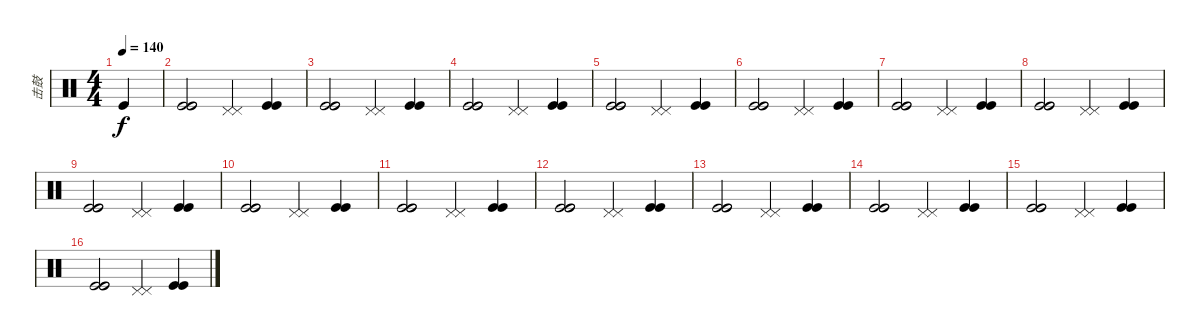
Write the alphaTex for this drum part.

\track ("击鼓" "击鼓") {instrument percussion}
\staff {score}
\articulation defaults
\ts (4 4)
\tempo 140
\clef neutral
\ks c "Kick (hit)".4{dy f}
|
("Kick (hit)" "Kick (hit)" "Kick (hit)").2 ("Pedal Hi-Hat (hit)" "Pedal Hi-Hat (hit)").4 ("Kick (hit)" "Kick (hit)").4 |
("Kick (hit)" "Kick (hit)" "Kick (hit)").2 ("Pedal Hi-Hat (hit)" "Pedal Hi-Hat (hit)").4 ("Kick (hit)" "Kick (hit)").4 |
("Kick (hit)" "Kick (hit)" "Kick (hit)").2 ("Pedal Hi-Hat (hit)" "Pedal Hi-Hat (hit)").4 ("Kick (hit)" "Kick (hit)").4 |
("Kick (hit)" "Kick (hit)" "Kick (hit)").2 ("Pedal Hi-Hat (hit)" "Pedal Hi-Hat (hit)").4 ("Kick (hit)" "Kick (hit)").4 |
("Kick (hit)" "Kick (hit)" "Kick (hit)").2 ("Pedal Hi-Hat (hit)" "Pedal Hi-Hat (hit)").4 ("Kick (hit)" "Kick (hit)").4 |
("Kick (hit)" "Kick (hit)" "Kick (hit)").2 ("Pedal Hi-Hat (hit)" "Pedal Hi-Hat (hit)").4 ("Kick (hit)" "Kick (hit)").4 |
("Kick (hit)" "Kick (hit)" "Kick (hit)").2 ("Pedal Hi-Hat (hit)" "Pedal Hi-Hat (hit)").4 ("Kick (hit)" "Kick (hit)").4 |
("Kick (hit)" "Kick (hit)" "Kick (hit)").2 ("Pedal Hi-Hat (hit)" "Pedal Hi-Hat (hit)").4 ("Kick (hit)" "Kick (hit)").4 |
("Kick (hit)" "Kick (hit)" "Kick (hit)").2 ("Pedal Hi-Hat (hit)" "Pedal Hi-Hat (hit)").4 ("Kick (hit)" "Kick (hit)").4 |
("Kick (hit)" "Kick (hit)" "Kick (hit)").2 ("Pedal Hi-Hat (hit)" "Pedal Hi-Hat (hit)").4 ("Kick (hit)" "Kick (hit)").4 |
("Kick (hit)" "Kick (hit)" "Kick (hit)").2 ("Pedal Hi-Hat (hit)" "Pedal Hi-Hat (hit)").4 ("Kick (hit)" "Kick (hit)").4 |
("Kick (hit)" "Kick (hit)" "Kick (hit)").2 ("Pedal Hi-Hat (hit)" "Pedal Hi-Hat (hit)").4 ("Kick (hit)" "Kick (hit)").4 |
("Kick (hit)" "Kick (hit)" "Kick (hit)").2 ("Pedal Hi-Hat (hit)" "Pedal Hi-Hat (hit)").4 ("Kick (hit)" "Kick (hit)").4 |
("Kick (hit)" "Kick (hit)" "Kick (hit)").2 ("Pedal Hi-Hat (hit)" "Pedal Hi-Hat (hit)").4 ("Kick (hit)" "Kick (hit)").4 |
("Kick (hit)" "Kick (hit)" "Kick (hit)").2 ("Pedal Hi-Hat (hit)" "Pedal Hi-Hat (hit)").4 ("Kick (hit)" "Kick (hit)").4
